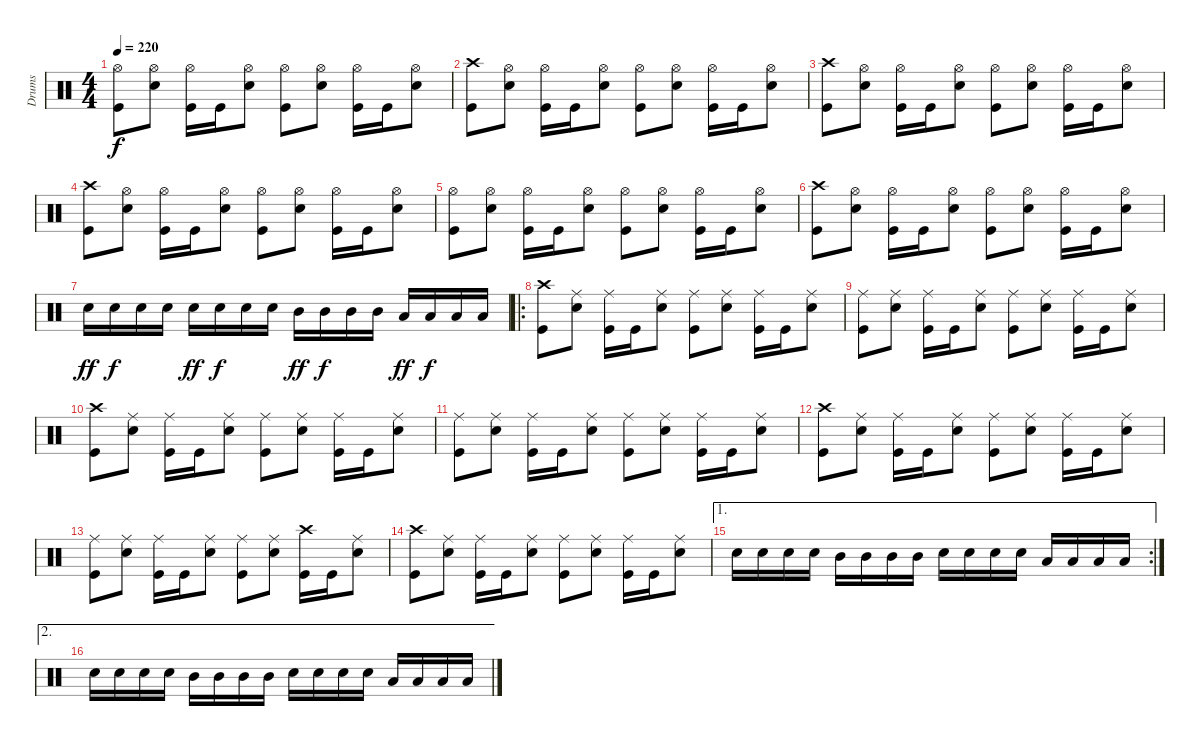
\track ("Drums" "Drums") {instrument percussion}
\staff {score}
\articulation defaults
\ts (4 4)
\tempo 220
\clef neutral
\ks c
("Hi-Hat (open)" "Kick (hit)").8{dy f} ("Hi-Hat (open)" "Electric Snare (hit)").8 ("Hi-Hat (open)" "Kick (hit)").16 "Kick (hit)".16 ("Hi-Hat (open)" "Electric Snare (hit)").8 ("Hi-Hat (open)" "Kick (hit)").8 ("Hi-Hat (open)" "Electric Snare (hit)").8 ("Hi-Hat (open)" "Kick (hit)").16 "Kick (hit)".16 ("Hi-Hat (open)" "Electric Snare (hit)").8 |
("Crash high (hit)" "Kick (hit)").8 ("Hi-Hat (open)" "Electric Snare (hit)").8 ("Hi-Hat (open)" "Kick (hit)").16 "Kick (hit)".16 ("Hi-Hat (open)" "Electric Snare (hit)").8 ("Hi-Hat (open)" "Kick (hit)").8 ("Hi-Hat (open)" "Electric Snare (hit)").8 ("Hi-Hat (open)" "Kick (hit)").16 "Kick (hit)".16 ("Hi-Hat (open)" "Electric Snare (hit)").8 |
("Crash high (hit)" "Kick (hit)").8 ("Hi-Hat (open)" "Electric Snare (hit)").8 ("Hi-Hat (open)" "Kick (hit)").16 "Kick (hit)".16 ("Hi-Hat (open)" "Electric Snare (hit)").8 ("Hi-Hat (open)" "Kick (hit)").8 ("Hi-Hat (open)" "Electric Snare (hit)").8 ("Hi-Hat (open)" "Kick (hit)").16 "Kick (hit)".16 ("Hi-Hat (open)" "Electric Snare (hit)").8 |
("Crash high (hit)" "Kick (hit)").8 ("Hi-Hat (open)" "Electric Snare (hit)").8 ("Hi-Hat (open)" "Kick (hit)").16 "Kick (hit)".16 ("Hi-Hat (open)" "Electric Snare (hit)").8 ("Hi-Hat (open)" "Kick (hit)").8 ("Hi-Hat (open)" "Electric Snare (hit)").8 ("Hi-Hat (open)" "Kick (hit)").16 "Kick (hit)".16 ("Hi-Hat (open)" "Electric Snare (hit)").8 |
("Hi-Hat (open)" "Kick (hit)").8 ("Hi-Hat (open)" "Electric Snare (hit)").8 ("Hi-Hat (open)" "Kick (hit)").16 "Kick (hit)".16 ("Hi-Hat (open)" "Electric Snare (hit)").8 ("Hi-Hat (open)" "Kick (hit)").8 ("Hi-Hat (open)" "Electric Snare (hit)").8 ("Hi-Hat (open)" "Kick (hit)").16 "Kick (hit)".16 ("Hi-Hat (open)" "Electric Snare (hit)").8 |
("Crash high (hit)" "Kick (hit)").8 ("Hi-Hat (open)" "Electric Snare (hit)").8 ("Hi-Hat (open)" "Kick (hit)").16 "Kick (hit)".16 ("Hi-Hat (open)" "Electric Snare (hit)").8 ("Hi-Hat (open)" "Kick (hit)").8 ("Hi-Hat (open)" "Electric Snare (hit)").8 ("Hi-Hat (open)" "Kick (hit)").16 "Kick (hit)".16 ("Hi-Hat (open)" "Electric Snare (hit)").8 |
"Electric Snare (hit)".16{dy ff} "Electric Snare (hit)".16{dy f} "Electric Snare (hit)".16 "Electric Snare (hit)".16 "Electric Snare (hit)".16{dy ff} "Electric Snare (hit)".16{dy f} "Electric Snare (hit)".16 "Electric Snare (hit)".16 "Mid Tom (hit)".16{dy ff} "Mid Tom (hit)".16{dy f} "Mid Tom (hit)".16 "Mid Tom (hit)".16 "Low Tom (hit)".16{dy ff} "Low Tom (hit)".16{dy f} "Low Tom (hit)".16 "Low Tom (hit)".16 |
\ro
("Crash high (hit)" "Kick (hit)").8 ("Ride (middle)" "Electric Snare (hit)").8 ("Ride (middle)" "Kick (hit)").16 "Kick (hit)".16 ("Ride (middle)" "Electric Snare (hit)").8 ("Ride (middle)" "Kick (hit)").8 ("Ride (middle)" "Electric Snare (hit)").8 ("Ride (middle)" "Kick (hit)").16 "Kick (hit)".16 ("Ride (middle)" "Electric Snare (hit)").8 |
("Ride (middle)" "Kick (hit)").8 ("Ride (middle)" "Electric Snare (hit)").8 ("Ride (middle)" "Kick (hit)").16 "Kick (hit)".16 ("Ride (middle)" "Electric Snare (hit)").8 ("Ride (middle)" "Kick (hit)").8 ("Ride (middle)" "Electric Snare (hit)").8 ("Ride (middle)" "Kick (hit)").16 "Kick (hit)".16 ("Ride (middle)" "Electric Snare (hit)").8 |
("Crash high (hit)" "Kick (hit)").8 ("Ride (middle)" "Electric Snare (hit)").8 ("Ride (middle)" "Kick (hit)").16 "Kick (hit)".16 ("Ride (middle)" "Electric Snare (hit)").8 ("Ride (middle)" "Kick (hit)").8 ("Ride (middle)" "Electric Snare (hit)").8 ("Ride (middle)" "Kick (hit)").16 "Kick (hit)".16 ("Ride (middle)" "Electric Snare (hit)").8 |
("Ride (middle)" "Kick (hit)").8 ("Ride (middle)" "Electric Snare (hit)").8 ("Ride (middle)" "Kick (hit)").16 "Kick (hit)".16 ("Ride (middle)" "Electric Snare (hit)").8 ("Ride (middle)" "Kick (hit)").8 ("Ride (middle)" "Electric Snare (hit)").8 ("Ride (middle)" "Kick (hit)").16 "Kick (hit)".16 ("Ride (middle)" "Electric Snare (hit)").8 |
("Crash high (hit)" "Kick (hit)").8 ("Ride (middle)" "Electric Snare (hit)").8 ("Ride (middle)" "Kick (hit)").16 "Kick (hit)".16 ("Ride (middle)" "Electric Snare (hit)").8 ("Ride (middle)" "Kick (hit)").8 ("Ride (middle)" "Electric Snare (hit)").8 ("Ride (middle)" "Kick (hit)").16 "Kick (hit)".16 ("Ride (middle)" "Electric Snare (hit)").8 |
("Ride (middle)" "Kick (hit)").8 ("Ride (middle)" "Electric Snare (hit)").8 ("Ride (middle)" "Kick (hit)").16 "Kick (hit)".16 ("Ride (middle)" "Electric Snare (hit)").8 ("Ride (middle)" "Kick (hit)").8 ("Ride (middle)" "Electric Snare (hit)").8 ("Crash high (hit)" "Kick (hit)").16 "Kick (hit)".16 ("Ride (middle)" "Electric Snare (hit)").8 |
("Crash high (hit)" "Kick (hit)").8 ("Ride (middle)" "Electric Snare (hit)").8 ("Ride (middle)" "Kick (hit)").16 "Kick (hit)".16 ("Ride (middle)" "Electric Snare (hit)").8 ("Ride (middle)" "Kick (hit)").8 ("Ride (middle)" "Electric Snare (hit)").8 ("Ride (middle)" "Kick (hit)").16 "Kick (hit)".16 ("Ride (middle)" "Electric Snare (hit)").8 |
\ae 1
\rc 2 "Electric Snare (hit)".16 "Electric Snare (hit)".16 "Electric Snare (hit)".16 "Electric Snare (hit)".16 "Mid Tom (hit)".16 "Mid Tom (hit)".16 "Mid Tom (hit)".16 "Mid Tom (hit)".16 "Electric Snare (hit)".16 "Electric Snare (hit)".16 "Electric Snare (hit)".16 "Electric Snare (hit)".16 "Low Tom (hit)".16 "Low Tom (hit)".16 "Low Tom (hit)".16 "Low Tom (hit)".16
|
\ae 2 "Electric Snare (hit)".16 "Electric Snare (hit)".16 "Electric Snare (hit)".16 "Electric Snare (hit)".16 "Mid Tom (hit)".16 "Mid Tom (hit)".16 "Mid Tom (hit)".16 "Mid Tom (hit)".16 "Electric Snare (hit)".16 "Electric Snare (hit)".16 "Electric Snare (hit)".16 "Electric Snare (hit)".16 "Low Tom (hit)".16 "Low Tom (hit)".16 "Low Tom (hit)".16 "Low Tom (hit)".16
